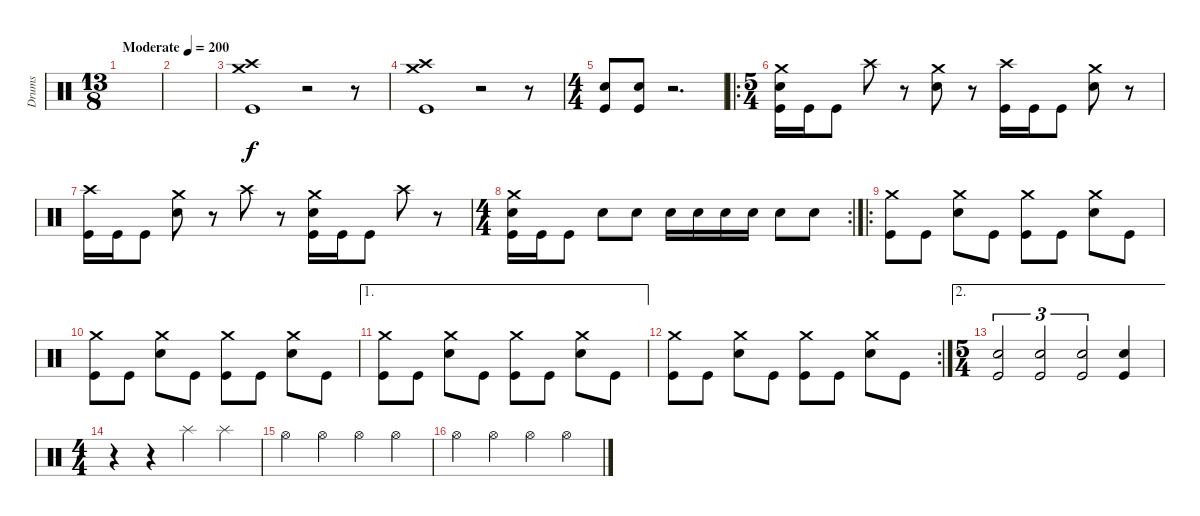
\track ("Drums" "Drums") {instrument percussion}
\staff {score}
\articulation defaults
\ts (13 8)
\tempo (200 "Moderate")
\clef neutral
\ks c
|
|
("Crash medium (hit)" "Crash high (hit)" "Kick (hit)").1 r.2 r.8 |
("Crash medium (hit)" "Crash high (hit)" "Kick (hit)").1 r.2 r.8 |
\ts (4 4)
("Snare (hit) 2" "Kick (hit)").8 ("Snare (hit) 2" "Kick (hit)").8 r.2{d} |
\ro
\ts (5 4)
("Crash medium (hit)" "Snare (hit) 2" "Kick (hit)").16 "Kick (hit)".16 "Kick (hit)".8 "Crash high (hit)".8 r.8 ("Crash medium (hit)" "Snare (hit) 2").8 r.8 ("Crash high (hit)" "Kick (hit)").16 "Kick (hit)".16 "Kick (hit)".8 ("Crash medium (hit)" "Snare (hit) 2").8 r.8 |
("Crash high (hit)" "Kick (hit)").16 "Kick (hit)".16 "Kick (hit)".8 ("Crash medium (hit)" "Snare (hit) 2").8 r.8 "Crash high (hit)".8 r.8 ("Crash medium (hit)" "Snare (hit) 2" "Kick (hit)").16 "Kick (hit)".16 "Kick (hit)".8 "Crash high (hit)".8 r.8 |
\rc 2
\ts (4 4)
("Crash medium (hit)" "Snare (hit) 2" "Kick (hit)").16 "Kick (hit)".16 "Kick (hit)".8 "Snare (hit) 2".8 "Snare (hit) 2".8 "Snare (hit) 2".16 "Snare (hit) 2".16 "Snare (hit) 2".16 "Snare (hit) 2".16 "Snare (hit) 2".8 "Snare (hit) 2".8 |
\ro
("Crash medium (hit)" "Kick (hit)").8 "Kick (hit)".8 ("Crash medium (hit)" "Snare (hit) 2").8 "Kick (hit)".8 ("Crash medium (hit)" "Kick (hit)").8 "Kick (hit)".8 ("Crash medium (hit)" "Snare (hit) 2").8 "Kick (hit)".8 |
("Crash medium (hit)" "Kick (hit)").8 "Kick (hit)".8 ("Crash medium (hit)" "Snare (hit) 2").8 "Kick (hit)".8 ("Crash medium (hit)" "Kick (hit)").8 "Kick (hit)".8 ("Crash medium (hit)" "Snare (hit) 2").8 "Kick (hit)".8 |
\ae 1
("Crash medium (hit)" "Kick (hit)").8 "Kick (hit)".8 ("Crash medium (hit)" "Snare (hit) 2").8 "Kick (hit)".8 ("Crash medium (hit)" "Kick (hit)").8 "Kick (hit)".8 ("Crash medium (hit)" "Snare (hit) 2").8 "Kick (hit)".8 |
\rc 2
("Crash medium (hit)" "Kick (hit)").8 "Kick (hit)".8 ("Crash medium (hit)" "Snare (hit) 2").8 "Kick (hit)".8 ("Crash medium (hit)" "Kick (hit)").8 "Kick (hit)".8 ("Crash medium (hit)" "Snare (hit) 2").8 "Kick (hit)".8 |
\ae 2
\ts (5 4)
("Snare (hit) 2" "Kick (hit)").2{tu (3 2)} ("Snare (hit) 2" "Kick (hit)").2{tu (3 2)} ("Snare (hit) 2" "Kick (hit)").2{tu (3 2)} ("Snare (hit) 2" "Kick (hit)").4 |
\ts (4 4)
r.4 r.4 "Splash (hit)".4 "Splash (hit)".4 |
"Hi-Hat (open)".4 "Hi-Hat (open)".4 "Hi-Hat (open)".4 "Hi-Hat (open)".4 |
"Hi-Hat (open)".4 "Hi-Hat (open)".4 "Hi-Hat (open)".4 "Hi-Hat (open)".4
